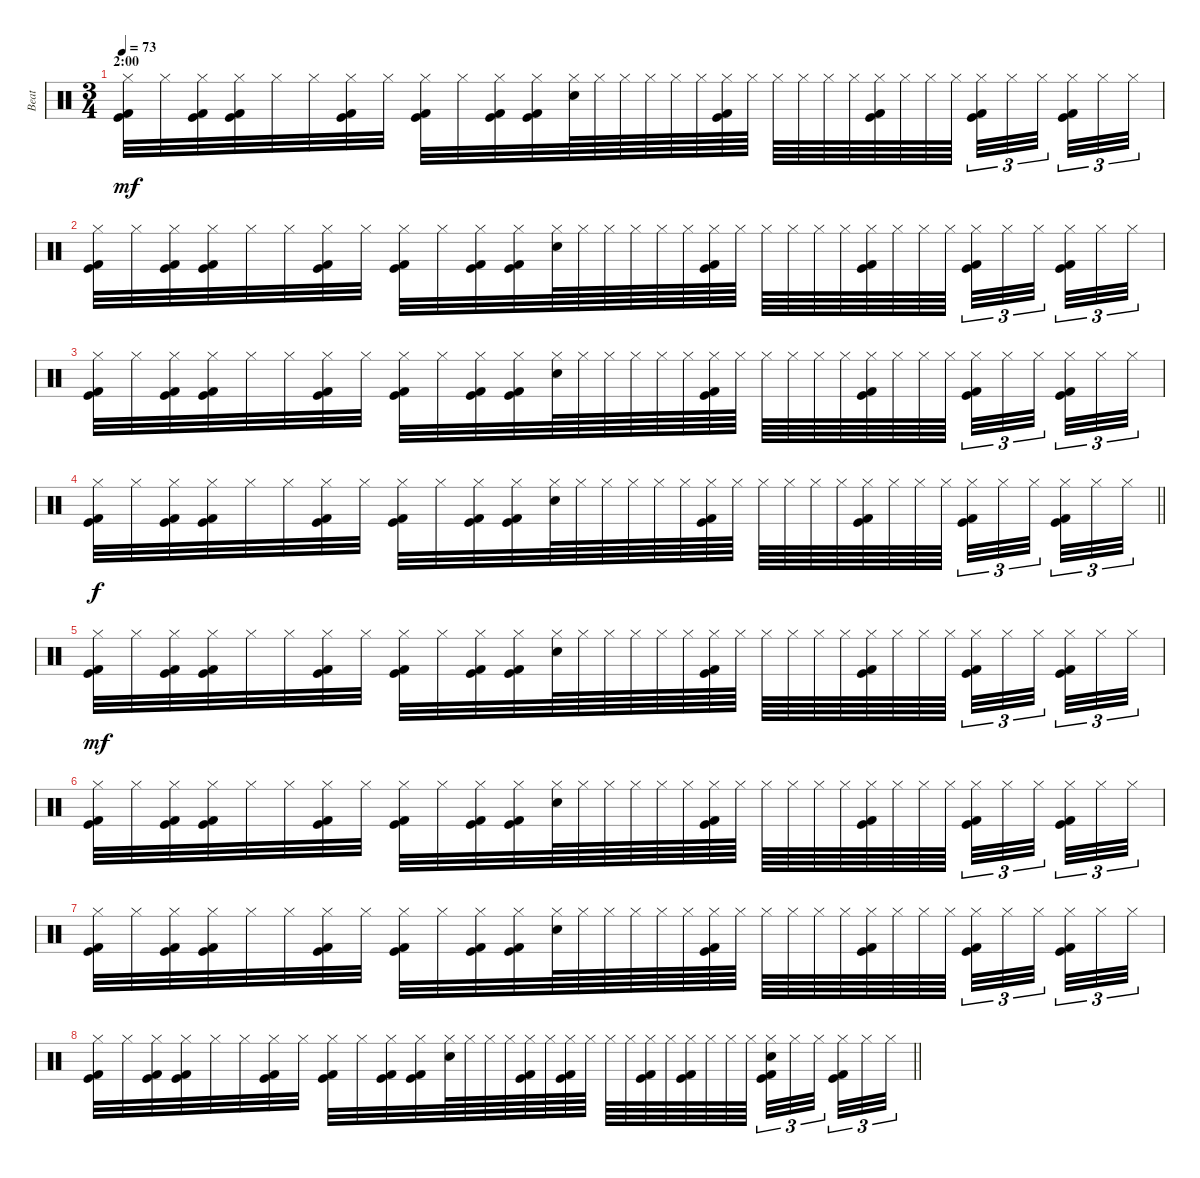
\track ("Beat" "Beat") {instrument percussion}
\staff {score}
\articulation defaults
\ts (3 4)
\section ("" "2:00")
\tempo 73
\clef neutral
\ks c
("Hi-Hat (closed)" "Kick (hit)" "Kick (hit) 2").32{dy mf} "Hi-Hat (closed)".32 ("Hi-Hat (closed)" "Kick (hit)" "Kick (hit) 2").32 ("Hi-Hat (closed)" "Kick (hit)" "Kick (hit) 2").32 "Hi-Hat (closed)".32 "Hi-Hat (closed)".32 ("Hi-Hat (closed)" "Kick (hit)" "Kick (hit) 2").32 "Hi-Hat (closed)".32 ("Hi-Hat (closed)" "Kick (hit)" "Kick (hit) 2").32 "Hi-Hat (closed)".32 ("Hi-Hat (closed)" "Kick (hit)" "Kick (hit) 2").32 ("Hi-Hat (closed)" "Kick (hit)" "Kick (hit) 2").32 ("Hi-Hat (closed)" "Snare (hit) 2").64 "Hi-Hat (closed)".64 "Hi-Hat (closed)".64 "Hi-Hat (closed)".64 "Hi-Hat (closed)".64 "Hi-Hat (closed)".64 ("Hi-Hat (closed)" "Kick (hit)" "Kick (hit) 2").64 "Hi-Hat (closed)".64 "Hi-Hat (closed)".64 "Hi-Hat (closed)".64 "Hi-Hat (closed)".64 "Hi-Hat (closed)".64 ("Hi-Hat (closed)" "Kick (hit)" "Kick (hit) 2").64 "Hi-Hat (closed)".64 "Hi-Hat (closed)".64 "Hi-Hat (closed)".64{beam splitsecondary} ("Hi-Hat (closed)" "Kick (hit)" "Kick (hit) 2").32{tu (3 2)} "Hi-Hat (closed)".32{tu (3 2)} "Hi-Hat (closed)".32{tu (3 2) beam splitsecondary} ("Hi-Hat (closed)" "Kick (hit)" "Kick (hit) 2").32{tu (3 2)} "Hi-Hat (closed)".32{tu (3 2)} "Hi-Hat (closed)".32{tu (3 2)} |
("Hi-Hat (closed)" "Kick (hit)" "Kick (hit) 2").32 "Hi-Hat (closed)".32 ("Hi-Hat (closed)" "Kick (hit)" "Kick (hit) 2").32 ("Hi-Hat (closed)" "Kick (hit)" "Kick (hit) 2").32 "Hi-Hat (closed)".32 "Hi-Hat (closed)".32 ("Hi-Hat (closed)" "Kick (hit)" "Kick (hit) 2").32 "Hi-Hat (closed)".32 ("Hi-Hat (closed)" "Kick (hit)" "Kick (hit) 2").32 "Hi-Hat (closed)".32 ("Hi-Hat (closed)" "Kick (hit)" "Kick (hit) 2").32 ("Hi-Hat (closed)" "Kick (hit)" "Kick (hit) 2").32 ("Hi-Hat (closed)" "Snare (hit) 2").64 "Hi-Hat (closed)".64 "Hi-Hat (closed)".64 "Hi-Hat (closed)".64 "Hi-Hat (closed)".64 "Hi-Hat (closed)".64 ("Hi-Hat (closed)" "Kick (hit)" "Kick (hit) 2").64 "Hi-Hat (closed)".64 "Hi-Hat (closed)".64 "Hi-Hat (closed)".64 "Hi-Hat (closed)".64 "Hi-Hat (closed)".64 ("Hi-Hat (closed)" "Kick (hit)" "Kick (hit) 2").64 "Hi-Hat (closed)".64 "Hi-Hat (closed)".64 "Hi-Hat (closed)".64{beam splitsecondary} ("Hi-Hat (closed)" "Kick (hit)" "Kick (hit) 2").32{tu (3 2)} "Hi-Hat (closed)".32{tu (3 2)} "Hi-Hat (closed)".32{tu (3 2) beam splitsecondary} ("Hi-Hat (closed)" "Kick (hit)" "Kick (hit) 2").32{tu (3 2)} "Hi-Hat (closed)".32{tu (3 2)} "Hi-Hat (closed)".32{tu (3 2)} |
("Hi-Hat (closed)" "Kick (hit)" "Kick (hit) 2").32 "Hi-Hat (closed)".32 ("Hi-Hat (closed)" "Kick (hit)" "Kick (hit) 2").32 ("Hi-Hat (closed)" "Kick (hit)" "Kick (hit) 2").32 "Hi-Hat (closed)".32 "Hi-Hat (closed)".32 ("Hi-Hat (closed)" "Kick (hit)" "Kick (hit) 2").32 "Hi-Hat (closed)".32 ("Hi-Hat (closed)" "Kick (hit)" "Kick (hit) 2").32 "Hi-Hat (closed)".32 ("Hi-Hat (closed)" "Kick (hit)" "Kick (hit) 2").32 ("Hi-Hat (closed)" "Kick (hit)" "Kick (hit) 2").32 ("Hi-Hat (closed)" "Snare (hit) 2").64 "Hi-Hat (closed)".64 "Hi-Hat (closed)".64 "Hi-Hat (closed)".64 "Hi-Hat (closed)".64 "Hi-Hat (closed)".64 ("Hi-Hat (closed)" "Kick (hit)" "Kick (hit) 2").64 "Hi-Hat (closed)".64 "Hi-Hat (closed)".64 "Hi-Hat (closed)".64 "Hi-Hat (closed)".64 "Hi-Hat (closed)".64 ("Hi-Hat (closed)" "Kick (hit)" "Kick (hit) 2").64 "Hi-Hat (closed)".64 "Hi-Hat (closed)".64 "Hi-Hat (closed)".64{beam splitsecondary} ("Hi-Hat (closed)" "Kick (hit)" "Kick (hit) 2").32{tu (3 2)} "Hi-Hat (closed)".32{tu (3 2)} "Hi-Hat (closed)".32{tu (3 2) beam splitsecondary} ("Hi-Hat (closed)" "Kick (hit)" "Kick (hit) 2").32{tu (3 2)} "Hi-Hat (closed)".32{tu (3 2)} "Hi-Hat (closed)".32{tu (3 2)} |
\barLineRight lightlight
("Hi-Hat (closed)" "Kick (hit)" "Kick (hit) 2").32{dy f} "Hi-Hat (closed)".32 ("Hi-Hat (closed)" "Kick (hit)" "Kick (hit) 2").32 ("Hi-Hat (closed)" "Kick (hit)" "Kick (hit) 2").32 "Hi-Hat (closed)".32 "Hi-Hat (closed)".32 ("Hi-Hat (closed)" "Kick (hit)" "Kick (hit) 2").32 "Hi-Hat (closed)".32 ("Hi-Hat (closed)" "Kick (hit)" "Kick (hit) 2").32 "Hi-Hat (closed)".32 ("Hi-Hat (closed)" "Kick (hit)" "Kick (hit) 2").32 ("Hi-Hat (closed)" "Kick (hit)" "Kick (hit) 2").32 ("Hi-Hat (closed)" "Snare (hit) 2").64 "Hi-Hat (closed)".64 "Hi-Hat (closed)".64 "Hi-Hat (closed)".64 "Hi-Hat (closed)".64 "Hi-Hat (closed)".64 ("Hi-Hat (closed)" "Kick (hit)" "Kick (hit) 2").64 "Hi-Hat (closed)".64 "Hi-Hat (closed)".64 "Hi-Hat (closed)".64 "Hi-Hat (closed)".64 "Hi-Hat (closed)".64 ("Hi-Hat (closed)" "Kick (hit)" "Kick (hit) 2").64 "Hi-Hat (closed)".64 "Hi-Hat (closed)".64 "Hi-Hat (closed)".64{beam splitsecondary} ("Hi-Hat (closed)" "Kick (hit)" "Kick (hit) 2").32{tu (3 2)} "Hi-Hat (closed)".32{tu (3 2)} "Hi-Hat (closed)".32{tu (3 2) beam splitsecondary} ("Hi-Hat (closed)" "Kick (hit)" "Kick (hit) 2").32{tu (3 2)} "Hi-Hat (closed)".32{tu (3 2)} "Hi-Hat (closed)".32{tu (3 2)} |
("Hi-Hat (closed)" "Kick (hit)" "Kick (hit) 2").32{dy mf} "Hi-Hat (closed)".32 ("Hi-Hat (closed)" "Kick (hit)" "Kick (hit) 2").32 ("Hi-Hat (closed)" "Kick (hit)" "Kick (hit) 2").32 "Hi-Hat (closed)".32 "Hi-Hat (closed)".32 ("Hi-Hat (closed)" "Kick (hit)" "Kick (hit) 2").32 "Hi-Hat (closed)".32 ("Hi-Hat (closed)" "Kick (hit)" "Kick (hit) 2").32 "Hi-Hat (closed)".32 ("Hi-Hat (closed)" "Kick (hit)" "Kick (hit) 2").32 ("Hi-Hat (closed)" "Kick (hit)" "Kick (hit) 2").32 ("Hi-Hat (closed)" "Snare (hit) 2").64 "Hi-Hat (closed)".64 "Hi-Hat (closed)".64 "Hi-Hat (closed)".64 "Hi-Hat (closed)".64 "Hi-Hat (closed)".64 ("Hi-Hat (closed)" "Kick (hit)" "Kick (hit) 2").64 "Hi-Hat (closed)".64 "Hi-Hat (closed)".64 "Hi-Hat (closed)".64 "Hi-Hat (closed)".64 "Hi-Hat (closed)".64 ("Hi-Hat (closed)" "Kick (hit)" "Kick (hit) 2").64 "Hi-Hat (closed)".64 "Hi-Hat (closed)".64 "Hi-Hat (closed)".64{beam splitsecondary} ("Hi-Hat (closed)" "Kick (hit)" "Kick (hit) 2").32{tu (3 2)} "Hi-Hat (closed)".32{tu (3 2)} "Hi-Hat (closed)".32{tu (3 2) beam splitsecondary} ("Hi-Hat (closed)" "Kick (hit)" "Kick (hit) 2").32{tu (3 2)} "Hi-Hat (closed)".32{tu (3 2)} "Hi-Hat (closed)".32{tu (3 2)} |
("Hi-Hat (closed)" "Kick (hit)" "Kick (hit) 2").32 "Hi-Hat (closed)".32 ("Hi-Hat (closed)" "Kick (hit)" "Kick (hit) 2").32 ("Hi-Hat (closed)" "Kick (hit)" "Kick (hit) 2").32 "Hi-Hat (closed)".32 "Hi-Hat (closed)".32 ("Hi-Hat (closed)" "Kick (hit)" "Kick (hit) 2").32 "Hi-Hat (closed)".32 ("Hi-Hat (closed)" "Kick (hit)" "Kick (hit) 2").32 "Hi-Hat (closed)".32 ("Hi-Hat (closed)" "Kick (hit)" "Kick (hit) 2").32 ("Hi-Hat (closed)" "Kick (hit)" "Kick (hit) 2").32 ("Hi-Hat (closed)" "Snare (hit) 2").64 "Hi-Hat (closed)".64 "Hi-Hat (closed)".64 "Hi-Hat (closed)".64 "Hi-Hat (closed)".64 "Hi-Hat (closed)".64 ("Hi-Hat (closed)" "Kick (hit)" "Kick (hit) 2").64 "Hi-Hat (closed)".64 "Hi-Hat (closed)".64 "Hi-Hat (closed)".64 "Hi-Hat (closed)".64 "Hi-Hat (closed)".64 ("Hi-Hat (closed)" "Kick (hit)" "Kick (hit) 2").64 "Hi-Hat (closed)".64 "Hi-Hat (closed)".64 "Hi-Hat (closed)".64{beam splitsecondary} ("Hi-Hat (closed)" "Kick (hit)" "Kick (hit) 2").32{tu (3 2)} "Hi-Hat (closed)".32{tu (3 2)} "Hi-Hat (closed)".32{tu (3 2) beam splitsecondary} ("Hi-Hat (closed)" "Kick (hit)" "Kick (hit) 2").32{tu (3 2)} "Hi-Hat (closed)".32{tu (3 2)} "Hi-Hat (closed)".32{tu (3 2)} |
("Hi-Hat (closed)" "Kick (hit)" "Kick (hit) 2").32 "Hi-Hat (closed)".32 ("Hi-Hat (closed)" "Kick (hit)" "Kick (hit) 2").32 ("Hi-Hat (closed)" "Kick (hit)" "Kick (hit) 2").32 "Hi-Hat (closed)".32 "Hi-Hat (closed)".32 ("Hi-Hat (closed)" "Kick (hit)" "Kick (hit) 2").32 "Hi-Hat (closed)".32 ("Hi-Hat (closed)" "Kick (hit)" "Kick (hit) 2").32 "Hi-Hat (closed)".32 ("Hi-Hat (closed)" "Kick (hit)" "Kick (hit) 2").32 ("Hi-Hat (closed)" "Kick (hit)" "Kick (hit) 2").32 ("Hi-Hat (closed)" "Snare (hit) 2").64 "Hi-Hat (closed)".64 "Hi-Hat (closed)".64 "Hi-Hat (closed)".64 "Hi-Hat (closed)".64 "Hi-Hat (closed)".64 ("Hi-Hat (closed)" "Kick (hit)" "Kick (hit) 2").64 "Hi-Hat (closed)".64 "Hi-Hat (closed)".64 "Hi-Hat (closed)".64 "Hi-Hat (closed)".64 "Hi-Hat (closed)".64 ("Hi-Hat (closed)" "Kick (hit)" "Kick (hit) 2").64 "Hi-Hat (closed)".64 "Hi-Hat (closed)".64 "Hi-Hat (closed)".64{beam splitsecondary} ("Hi-Hat (closed)" "Kick (hit)" "Kick (hit) 2").32{tu (3 2)} "Hi-Hat (closed)".32{tu (3 2)} "Hi-Hat (closed)".32{tu (3 2) beam splitsecondary} ("Hi-Hat (closed)" "Kick (hit)" "Kick (hit) 2").32{tu (3 2)} "Hi-Hat (closed)".32{tu (3 2)} "Hi-Hat (closed)".32{tu (3 2)} |
\barLineRight lightlight
("Hi-Hat (closed)" "Kick (hit)" "Kick (hit) 2").32 "Hi-Hat (closed)".32 ("Hi-Hat (closed)" "Kick (hit)" "Kick (hit) 2").32 ("Hi-Hat (closed)" "Kick (hit)" "Kick (hit) 2").32 "Hi-Hat (closed)".32 "Hi-Hat (closed)".32 ("Hi-Hat (closed)" "Kick (hit)" "Kick (hit) 2").32 "Hi-Hat (closed)".32 ("Hi-Hat (closed)" "Kick (hit)" "Kick (hit) 2").32 "Hi-Hat (closed)".32 ("Hi-Hat (closed)" "Kick (hit)" "Kick (hit) 2").32 ("Hi-Hat (closed)" "Kick (hit)" "Kick (hit) 2").32 ("Hi-Hat (closed)" "Snare (hit) 2").64 "Hi-Hat (closed)".64 "Hi-Hat (closed)".64 "Hi-Hat (closed)".64 ("Hi-Hat (closed)" "Kick (hit)" "Kick (hit) 2").64 "Hi-Hat (closed)".64 ("Hi-Hat (closed)" "Kick (hit)" "Kick (hit) 2").64 "Hi-Hat (closed)".64 "Hi-Hat (closed)".64 "Hi-Hat (closed)".64 ("Hi-Hat (closed)" "Kick (hit)" "Kick (hit) 2").64 "Hi-Hat (closed)".64 ("Hi-Hat (closed)" "Kick (hit)" "Kick (hit) 2").64 "Hi-Hat (closed)".64 "Hi-Hat (closed)".64 "Hi-Hat (closed)".64{beam splitsecondary} ("Hi-Hat (closed)" "Snare (hit) 2" "Kick (hit)" "Kick (hit) 2").32{tu (3 2)} "Hi-Hat (closed)".32{tu (3 2)} "Hi-Hat (closed)".32{tu (3 2) beam splitsecondary} ("Hi-Hat (closed)" "Kick (hit)" "Kick (hit) 2").32{tu (3 2)} "Hi-Hat (closed)".32{tu (3 2)} "Hi-Hat (closed)".32{tu (3 2)}
